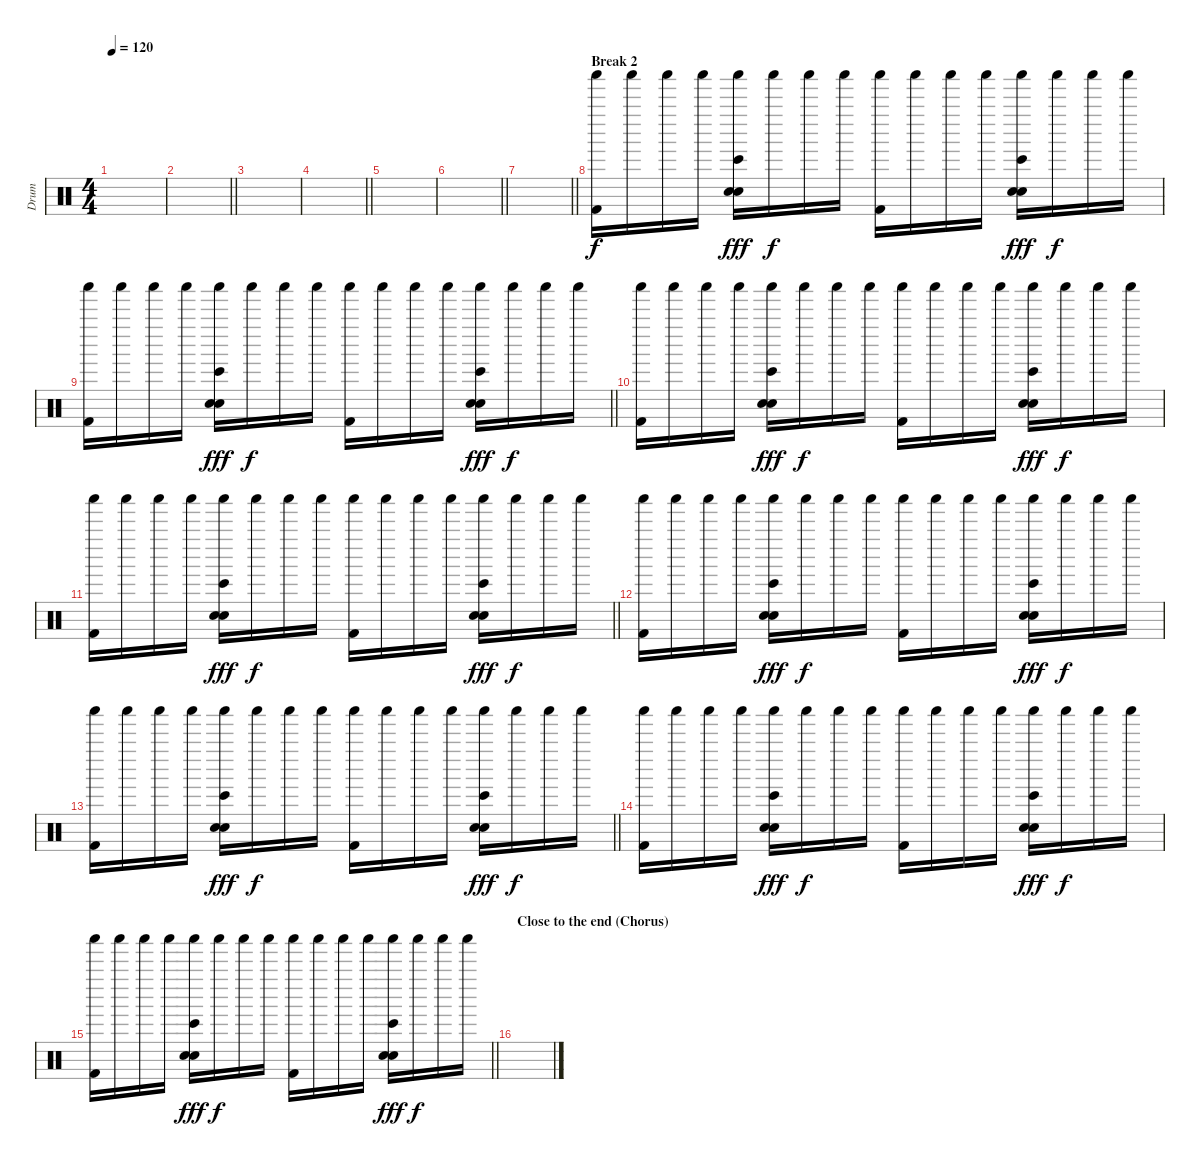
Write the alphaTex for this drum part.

\track ("Drum" "Drum") {instrument percussion}
\staff {score}
\articulation defaults
\ts (4 4)
\tempo 120
\clef neutral
\ks c
|
\barLineRight lightlight
|
|
\barLineRight lightlight
|
|
\barLineRight lightlight
|
\barLineRight lightlight
|
\section ("" "Break 2")
("Kick (hit) 2" "Shaker (hit)").16 "Shaker (hit)".16 "Shaker (hit)".16 "Shaker (hit)".16 ("Electric Snare (hit)" "Shaker (hit)" "Hand Clap (hit)" "Bongo High (hit)").16{dy fff} "Shaker (hit)".16{dy f} "Shaker (hit)".16 "Shaker (hit)".16 ("Kick (hit) 2" "Shaker (hit)").16 "Shaker (hit)".16 "Shaker (hit)".16 "Shaker (hit)".16 ("Electric Snare (hit)" "Shaker (hit)" "Hand Clap (hit)" "Bongo High (hit)").16{dy fff} "Shaker (hit)".16{dy f} "Shaker (hit)".16 "Shaker (hit)".16 |
\barLineRight lightlight
("Kick (hit) 2" "Shaker (hit)").16 "Shaker (hit)".16 "Shaker (hit)".16 "Shaker (hit)".16 ("Electric Snare (hit)" "Shaker (hit)" "Hand Clap (hit)" "Bongo High (hit)").16{dy fff} "Shaker (hit)".16{dy f} "Shaker (hit)".16 "Shaker (hit)".16 ("Kick (hit) 2" "Shaker (hit)").16 "Shaker (hit)".16 "Shaker (hit)".16 "Shaker (hit)".16 ("Electric Snare (hit)" "Shaker (hit)" "Hand Clap (hit)" "Bongo High (hit)").16{dy fff} "Shaker (hit)".16{dy f} "Shaker (hit)".16 "Shaker (hit)".16 |
("Kick (hit) 2" "Shaker (hit)").16 "Shaker (hit)".16 "Shaker (hit)".16 "Shaker (hit)".16 ("Electric Snare (hit)" "Shaker (hit)" "Hand Clap (hit)" "Bongo High (hit)").16{dy fff} "Shaker (hit)".16{dy f} "Shaker (hit)".16 "Shaker (hit)".16 ("Kick (hit) 2" "Shaker (hit)").16 "Shaker (hit)".16 "Shaker (hit)".16 "Shaker (hit)".16 ("Electric Snare (hit)" "Shaker (hit)" "Hand Clap (hit)" "Bongo High (hit)").16{dy fff} "Shaker (hit)".16{dy f} "Shaker (hit)".16 "Shaker (hit)".16 |
\barLineRight lightlight
("Kick (hit) 2" "Shaker (hit)").16 "Shaker (hit)".16 "Shaker (hit)".16 "Shaker (hit)".16 ("Electric Snare (hit)" "Shaker (hit)" "Hand Clap (hit)" "Bongo High (hit)").16{dy fff} "Shaker (hit)".16{dy f} "Shaker (hit)".16 "Shaker (hit)".16 ("Kick (hit) 2" "Shaker (hit)").16 "Shaker (hit)".16 "Shaker (hit)".16 "Shaker (hit)".16 ("Electric Snare (hit)" "Shaker (hit)" "Hand Clap (hit)" "Bongo High (hit)").16{dy fff} "Shaker (hit)".16{dy f} "Shaker (hit)".16 "Shaker (hit)".16 |
("Kick (hit) 2" "Shaker (hit)").16 "Shaker (hit)".16 "Shaker (hit)".16 "Shaker (hit)".16 ("Electric Snare (hit)" "Shaker (hit)" "Hand Clap (hit)" "Bongo High (hit)").16{dy fff} "Shaker (hit)".16{dy f} "Shaker (hit)".16 "Shaker (hit)".16 ("Kick (hit) 2" "Shaker (hit)").16 "Shaker (hit)".16 "Shaker (hit)".16 "Shaker (hit)".16 ("Electric Snare (hit)" "Shaker (hit)" "Hand Clap (hit)" "Bongo High (hit)").16{dy fff} "Shaker (hit)".16{dy f} "Shaker (hit)".16 "Shaker (hit)".16 |
\barLineRight lightlight
("Kick (hit) 2" "Shaker (hit)").16 "Shaker (hit)".16 "Shaker (hit)".16 "Shaker (hit)".16 ("Electric Snare (hit)" "Shaker (hit)" "Hand Clap (hit)" "Bongo High (hit)").16{dy fff} "Shaker (hit)".16{dy f} "Shaker (hit)".16 "Shaker (hit)".16 ("Kick (hit) 2" "Shaker (hit)").16 "Shaker (hit)".16 "Shaker (hit)".16 "Shaker (hit)".16 ("Electric Snare (hit)" "Shaker (hit)" "Hand Clap (hit)" "Bongo High (hit)").16{dy fff} "Shaker (hit)".16{dy f} "Shaker (hit)".16 "Shaker (hit)".16 |
("Kick (hit) 2" "Shaker (hit)").16 "Shaker (hit)".16 "Shaker (hit)".16 "Shaker (hit)".16 ("Electric Snare (hit)" "Shaker (hit)" "Hand Clap (hit)" "Bongo High (hit)").16{dy fff} "Shaker (hit)".16{dy f} "Shaker (hit)".16 "Shaker (hit)".16 ("Kick (hit) 2" "Shaker (hit)").16 "Shaker (hit)".16 "Shaker (hit)".16 "Shaker (hit)".16 ("Electric Snare (hit)" "Shaker (hit)" "Hand Clap (hit)" "Bongo High (hit)").16{dy fff} "Shaker (hit)".16{dy f} "Shaker (hit)".16 "Shaker (hit)".16 |
\barLineRight lightlight
("Kick (hit) 2" "Shaker (hit)").16 "Shaker (hit)".16 "Shaker (hit)".16 "Shaker (hit)".16 ("Electric Snare (hit)" "Shaker (hit)" "Hand Clap (hit)" "Bongo High (hit)").16{dy fff} "Shaker (hit)".16{dy f} "Shaker (hit)".16 "Shaker (hit)".16 ("Kick (hit) 2" "Shaker (hit)").16 "Shaker (hit)".16 "Shaker (hit)".16 "Shaker (hit)".16 ("Electric Snare (hit)" "Shaker (hit)" "Hand Clap (hit)" "Bongo High (hit)").16{dy fff} "Shaker (hit)".16{dy f} "Shaker (hit)".16 "Shaker (hit)".16 |
\section ("" "Close to the end (Chorus)")
